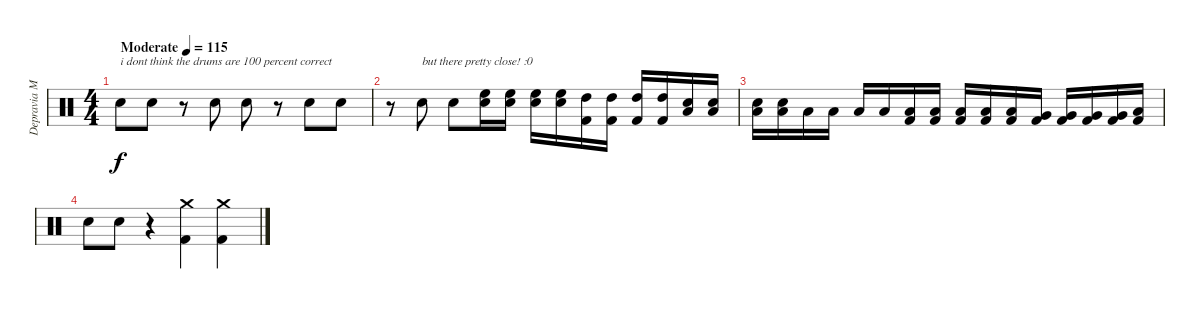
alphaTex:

\track ("Depravia Majoria" "Depravia M") {instrument percussion}
\staff {score}
\articulation defaults
\ts (4 4)
\tempo (115 "Moderate")
\clef neutral
\ks c "Electric Snare (hit)".8{txt "i dont think the drums are 100 percent correct" dy f} "Electric Snare (hit)".8
r.8 "Electric Snare (hit)".8 "Electric Snare (hit)".8 r.8 "Electric Snare (hit)".8 "Electric Snare (hit)".8 |
r.8 "Electric Snare (hit)".8{txt "but there pretty close! :0"} "Electric Snare (hit)".8 ("High Floor Tom (hit)" "Electric Snare (hit)").16 ("High Floor Tom (hit)" "Electric Snare (hit)").16 ("High Floor Tom (hit)" "Electric Snare (hit)").16 ("High Floor Tom (hit)" "Electric Snare (hit)").16 ("High Tom (hit)" "Kick (hit) 2").16 ("High Tom (hit)" "Kick (hit) 2").16 ("High Tom (hit)" "Kick (hit) 2").16 ("High Tom (hit)" "Kick (hit) 2").16 ("Low Tom (hit)" "Electric Snare (hit)").16 ("Low Tom (hit)" "Electric Snare (hit)").16 |
("Low Tom (hit)" "Electric Snare (hit)").16 ("Low Tom (hit)" "Electric Snare (hit)").16 "Low Tom (hit)".16 "Low Tom (hit)".16 "Low Tom (hit)".16 "Low Tom (hit)".16 ("Low Tom (hit)" "Kick (hit) 2").16 ("Low Tom (hit)" "Kick (hit) 2").16 ("Low Tom (hit)" "Kick (hit) 2").16 ("Low Tom (hit)" "Kick (hit) 2").16 ("Low Tom (hit)" "Kick (hit) 2").16 ("Very Low Tom (hit)" "Kick (hit) 2").16 ("Very Low Tom (hit)" "Kick (hit) 2").16 ("Very Low Tom (hit)" "Kick (hit) 2").16 ("Very Low Tom (hit)" "Kick (hit) 2").16 ("Low Floor Tom (hit)" "Kick (hit) 2").16 |
"Electric Snare (hit)".8 "Electric Snare (hit)".8 r.4 ("Crash medium (hit)" "Kick (hit) 2").4 ("Crash medium (hit)" "Kick (hit) 2").4
